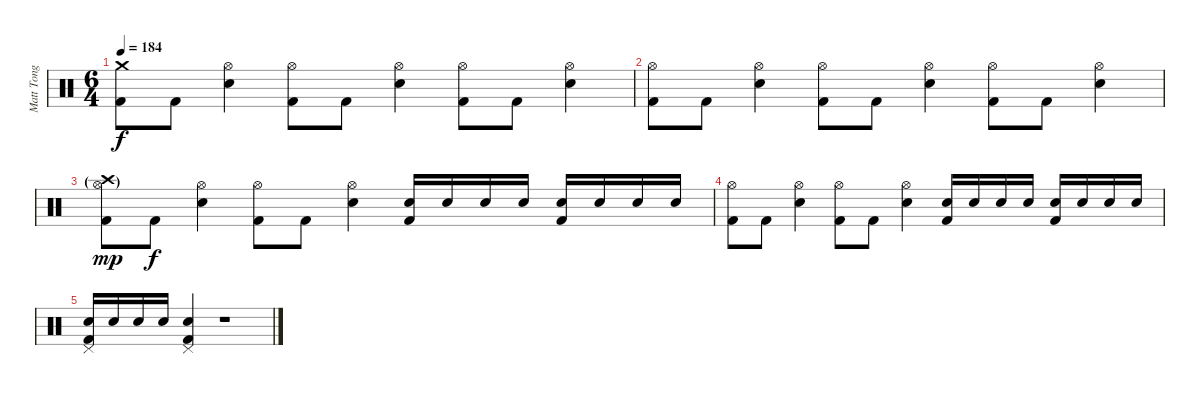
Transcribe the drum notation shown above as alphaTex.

\track ("Matt Tong" "Matt Tong") {instrument percussion}
\staff {score}
\articulation defaults
\ts (6 4)
\tempo 184
\clef neutral
\ks c
("Crash medium (hit)" "Kick (hit) 2").8{dy f} "Kick (hit) 2".8 ("Hi-Hat (open)" "Electric Snare (hit)").4 ("Hi-Hat (open)" "Kick (hit) 2").8 "Kick (hit) 2".8 ("Hi-Hat (open)" "Electric Snare (hit)").4 ("Hi-Hat (open)" "Kick (hit) 2").8 "Kick (hit) 2".8 ("Hi-Hat (open)" "Electric Snare (hit)").4 |
("Hi-Hat (open)" "Kick (hit) 2").8 "Kick (hit) 2".8 ("Hi-Hat (open)" "Electric Snare (hit)").4 ("Hi-Hat (open)" "Kick (hit) 2").8 "Kick (hit) 2".8 ("Hi-Hat (open)" "Electric Snare (hit)").4 ("Hi-Hat (open)" "Kick (hit) 2").8 "Kick (hit) 2".8 ("Hi-Hat (open)" "Electric Snare (hit)").4 |
("Crash high (hit)"{g} "Hi-Hat (open)"{g} "Kick (hit) 2").8{dy mp} "Kick (hit) 2".8{dy f} ("Hi-Hat (open)" "Electric Snare (hit)").4 ("Hi-Hat (open)" "Kick (hit) 2").8 "Kick (hit) 2".8 ("Hi-Hat (open)" "Electric Snare (hit)").4 ("Electric Snare (hit)" "Kick (hit) 2").16 "Electric Snare (hit)".16 "Electric Snare (hit)".16 "Electric Snare (hit)".16 ("Electric Snare (hit)" "Kick (hit) 2").16 "Electric Snare (hit)".16 "Electric Snare (hit)".16 "Electric Snare (hit)".16 |
("Hi-Hat (open)" "Kick (hit) 2").8 "Kick (hit) 2".8 ("Hi-Hat (open)" "Electric Snare (hit)").4 ("Hi-Hat (open)" "Kick (hit) 2").8 "Kick (hit) 2".8 ("Hi-Hat (open)" "Electric Snare (hit)").4 ("Electric Snare (hit)" "Kick (hit) 2").16 "Electric Snare (hit)".16 "Electric Snare (hit)".16 "Electric Snare (hit)".16 ("Electric Snare (hit)" "Kick (hit) 2").16 "Electric Snare (hit)".16 "Electric Snare (hit)".16 "Electric Snare (hit)".16 |
("Pedal Hi-Hat (hit)" "Electric Snare (hit)" "Kick (hit) 2").16 "Electric Snare (hit)".16 "Electric Snare (hit)".16 "Electric Snare (hit)".16 ("Pedal Hi-Hat (hit)" "Electric Snare (hit)" "Kick (hit) 2").4 r.1
